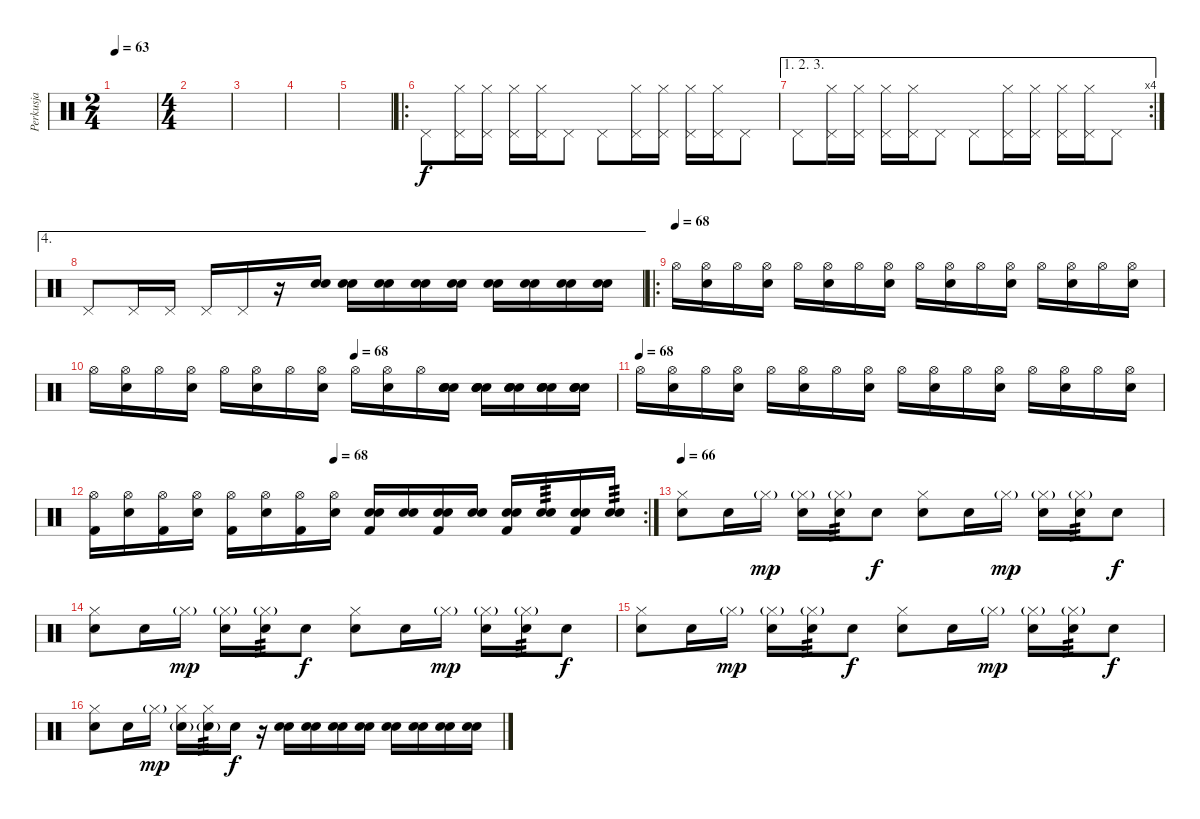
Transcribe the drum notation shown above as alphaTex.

\track ("Perkusja" "Perkusja") {instrument percussion}
\staff {score}
\articulation defaults
\ts (2 4)
\tempo 63
\clef neutral
\ks c
|
\ts (4 4)
|
|
|
|
\ro "Pedal Hi-Hat (hit)".8
("Hi-Hat (closed)" "Pedal Hi-Hat (hit)").16 ("Hi-Hat (closed)" "Pedal Hi-Hat (hit)").16 ("Hi-Hat (closed)" "Pedal Hi-Hat (hit)").16 ("Hi-Hat (closed)" "Pedal Hi-Hat (hit)").16 "Pedal Hi-Hat (hit)".8 "Pedal Hi-Hat (hit)".8 ("Hi-Hat (closed)" "Pedal Hi-Hat (hit)").16 ("Hi-Hat (closed)" "Pedal Hi-Hat (hit)").16 ("Hi-Hat (closed)" "Pedal Hi-Hat (hit)").16 ("Hi-Hat (closed)" "Pedal Hi-Hat (hit)").16 "Pedal Hi-Hat (hit)".8 |
\ae (1 2 3)
\rc 4 "Pedal Hi-Hat (hit)".8
("Hi-Hat (closed)" "Pedal Hi-Hat (hit)").16 ("Hi-Hat (closed)" "Pedal Hi-Hat (hit)").16 ("Hi-Hat (closed)" "Pedal Hi-Hat (hit)").16 ("Hi-Hat (closed)" "Pedal Hi-Hat (hit)").16 "Pedal Hi-Hat (hit)".8 "Pedal Hi-Hat (hit)".8 ("Hi-Hat (closed)" "Pedal Hi-Hat (hit)").16 ("Hi-Hat (closed)" "Pedal Hi-Hat (hit)").16 ("Hi-Hat (closed)" "Pedal Hi-Hat (hit)").16 ("Hi-Hat (closed)" "Pedal Hi-Hat (hit)").16 "Pedal Hi-Hat (hit)".8 |
\ae 4 "Pedal Hi-Hat (hit)".8 "Pedal Hi-Hat (hit)".16 "Pedal Hi-Hat (hit)".16 "Pedal Hi-Hat (hit)".16 "Pedal Hi-Hat (hit)".16
r.16 ("Electric Snare (hit)" "Electric Snare (hit)").16 ("Electric Snare (hit)" "Electric Snare (hit)").16 ("Electric Snare (hit)" "Electric Snare (hit)").16 ("Electric Snare (hit)" "Electric Snare (hit)").16 ("Electric Snare (hit)" "Electric Snare (hit)").16 ("Electric Snare (hit)" "Electric Snare (hit)").16 ("Electric Snare (hit)" "Electric Snare (hit)").16 ("Electric Snare (hit)" "Electric Snare (hit)").16 ("Electric Snare (hit)" "Electric Snare (hit)").16 |
\ro
\tempo (68)
"Hi-Hat (open)".16 ("Hi-Hat (open)" "Electric Snare (hit)").16 "Hi-Hat (open)".16 ("Hi-Hat (open)" "Electric Snare (hit)").16 "Hi-Hat (open)".16 ("Hi-Hat (open)" "Electric Snare (hit)").16 "Hi-Hat (open)".16 ("Hi-Hat (open)" "Electric Snare (hit)").16 "Hi-Hat (open)".16 ("Hi-Hat (open)" "Electric Snare (hit)").16 "Hi-Hat (open)".16 ("Hi-Hat (open)" "Electric Snare (hit)").16 "Hi-Hat (open)".16 ("Hi-Hat (open)" "Electric Snare (hit)").16 "Hi-Hat (open)".16 ("Hi-Hat (open)" "Electric Snare (hit)").16 |
\tempo (68 0.5)
"Hi-Hat (open)".16 ("Hi-Hat (open)" "Electric Snare (hit)").16 "Hi-Hat (open)".16 ("Hi-Hat (open)" "Electric Snare (hit)").16 "Hi-Hat (open)".16 ("Hi-Hat (open)" "Electric Snare (hit)").16 "Hi-Hat (open)".16 ("Hi-Hat (open)" "Electric Snare (hit)").16 "Hi-Hat (open)".16 ("Hi-Hat (open)" "Electric Snare (hit)").16 "Hi-Hat (open)".16 ("Snare (hit) 2" "Snare (hit) 2" "Electric Snare (hit)" "Electric Snare (hit)").16 ("Snare (hit) 2" "Snare (hit) 2" "Electric Snare (hit)" "Electric Snare (hit)").16 ("Snare (hit) 2" "Snare (hit) 2" "Electric Snare (hit)" "Electric Snare (hit)").16 ("Snare (hit) 2" "Snare (hit) 2" "Electric Snare (hit)" "Electric Snare (hit)").16 ("Snare (hit) 2" "Snare (hit) 2" "Electric Snare (hit)" "Electric Snare (hit)").16 |
\tempo (68)
"Hi-Hat (open)".16 ("Hi-Hat (open)" "Electric Snare (hit)").16 "Hi-Hat (open)".16 ("Hi-Hat (open)" "Electric Snare (hit)").16 "Hi-Hat (open)".16 ("Hi-Hat (open)" "Electric Snare (hit)").16 "Hi-Hat (open)".16 ("Hi-Hat (open)" "Electric Snare (hit)").16 "Hi-Hat (open)".16 ("Hi-Hat (open)" "Electric Snare (hit)").16 "Hi-Hat (open)".16 ("Hi-Hat (open)" "Electric Snare (hit)").16 "Hi-Hat (open)".16 ("Hi-Hat (open)" "Electric Snare (hit)").16 "Hi-Hat (open)".16 ("Hi-Hat (open)" "Electric Snare (hit)").16 |
\rc 2
\tempo (68 0.4375)
("Hi-Hat (open)" "Kick (hit) 2").16 ("Hi-Hat (open)" "Electric Snare (hit)").16 ("Hi-Hat (open)" "Kick (hit) 2").16 ("Hi-Hat (open)" "Electric Snare (hit)").16 ("Hi-Hat (open)" "Kick (hit) 2").16 ("Hi-Hat (open)" "Electric Snare (hit)").16 ("Hi-Hat (open)" "Kick (hit) 2").16 ("Hi-Hat (open)" "Electric Snare (hit)").16 ("Electric Snare (hit)" "Electric Snare (hit)" "Kick (hit) 2").16 ("Electric Snare (hit)" "Electric Snare (hit)").16 ("Electric Snare (hit)" "Electric Snare (hit)" "Kick (hit) 2").16 ("Electric Snare (hit)" "Electric Snare (hit)").16 ("Electric Snare (hit)" "Electric Snare (hit)" "Kick (hit) 2").16 ("Electric Snare (hit)" "Electric Snare (hit)").16{tp 3} ("Electric Snare (hit)" "Electric Snare (hit)" "Kick (hit) 2").16 ("Electric Snare (hit)" "Electric Snare (hit)").16{tp 3} |
\tempo 66
("Hi-Hat (closed)" "Snare (hit) 2").8 "Electric Snare (hit)".16 "Hi-Hat (closed)"{g}.16{dy mp} ("Hi-Hat (closed)"{g} "Snare (hit) 2").16 ("Hi-Hat (closed)"{g} "Snare (hit) 2").16{tp 3} "Electric Snare (hit)".8{dy f} ("Hi-Hat (closed)" "Snare (hit) 2").8 "Electric Snare (hit)".16 "Hi-Hat (closed)"{g}.16{dy mp} ("Hi-Hat (closed)"{g} "Snare (hit) 2").16 ("Hi-Hat (closed)"{g} "Snare (hit) 2").16{tp 3} "Electric Snare (hit)".8{dy f} |
("Hi-Hat (closed)" "Snare (hit) 2").8 "Electric Snare (hit)".16 "Hi-Hat (closed)"{g}.16{dy mp} ("Hi-Hat (closed)"{g} "Snare (hit) 2").16 ("Hi-Hat (closed)"{g} "Snare (hit) 2").16{tp 3} "Electric Snare (hit)".8{dy f} ("Hi-Hat (closed)" "Snare (hit) 2").8 "Electric Snare (hit)".16 "Hi-Hat (closed)"{g}.16{dy mp} ("Hi-Hat (closed)"{g} "Snare (hit) 2").16 ("Hi-Hat (closed)"{g} "Snare (hit) 2").16{tp 3} "Electric Snare (hit)".8{dy f} |
("Hi-Hat (closed)" "Snare (hit) 2").8 "Electric Snare (hit)".16 "Hi-Hat (closed)"{g}.16{dy mp} ("Hi-Hat (closed)"{g} "Snare (hit) 2").16 ("Hi-Hat (closed)"{g} "Snare (hit) 2").16{tp 3} "Electric Snare (hit)".8{dy f} ("Hi-Hat (closed)" "Snare (hit) 2").8 "Electric Snare (hit)".16 "Hi-Hat (closed)"{g}.16{dy mp} ("Hi-Hat (closed)"{g} "Snare (hit) 2").16 ("Hi-Hat (closed)"{g} "Snare (hit) 2").16{tp 3} "Electric Snare (hit)".8{dy f} |
("Hi-Hat (closed)" "Snare (hit) 2").8 "Electric Snare (hit)".16 "Hi-Hat (closed)"{g}.16{dy mp} ("Hi-Hat (closed)" "Snare (hit) 2"{g}).16 ("Hi-Hat (closed)" "Snare (hit) 2"{g}).16{tp 3} "Electric Snare (hit)".16{dy f} r.16 ("Electric Snare (hit)" "Electric Snare (hit)").16 ("Electric Snare (hit)" "Electric Snare (hit)").16 ("Electric Snare (hit)" "Electric Snare (hit)").16 ("Electric Snare (hit)" "Electric Snare (hit)").16 ("Electric Snare (hit)" "Electric Snare (hit)").16 ("Electric Snare (hit)" "Electric Snare (hit)").16 ("Electric Snare (hit)" "Electric Snare (hit)").16 ("Electric Snare (hit)" "Electric Snare (hit)").16
